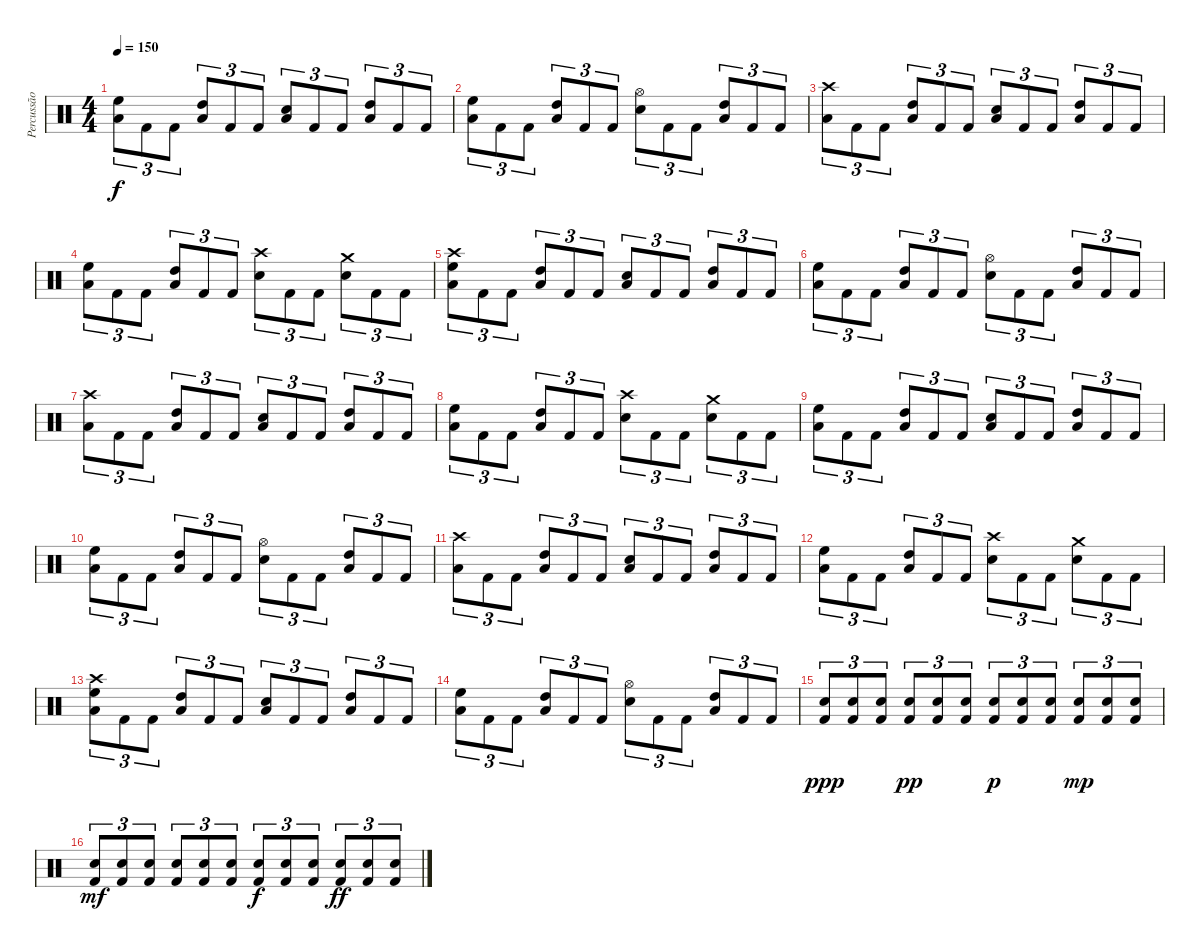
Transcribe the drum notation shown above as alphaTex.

\track ("Percussão" "Percussão") {instrument percussion}
\staff {score}
\articulation defaults
\ts (4 4)
\tempo 150
\clef neutral
\ks c
("Low Floor Tom (hit)" "High Floor Tom (hit)").8{tu (3 2) dy f} "Kick (hit) 2".8{tu (3 2)} "Kick (hit) 2".8{tu (3 2)} ("Low Floor Tom (hit)" "High Tom (hit)").8{tu (3 2)} "Kick (hit) 2".8{tu (3 2)} "Kick (hit) 2".8{tu (3 2)} ("Snare (hit) 2" "Low Floor Tom (hit)").8{tu (3 2)} "Kick (hit) 2".8{tu (3 2)} "Kick (hit) 2".8{tu (3 2)} ("Low Floor Tom (hit)" "High Tom (hit)").8{tu (3 2)} "Kick (hit) 2".8{tu (3 2)} "Kick (hit) 2".8{tu (3 2)} |
("Low Floor Tom (hit)" "High Floor Tom (hit)").8{tu (3 2)} "Kick (hit) 2".8{tu (3 2)} "Kick (hit) 2".8{tu (3 2)} ("Low Floor Tom (hit)" "High Tom (hit)").8{tu (3 2)} "Kick (hit) 2".8{tu (3 2)} "Kick (hit) 2".8{tu (3 2)} ("Hi-Hat (open)" "Snare (hit) 2").8{tu (3 2)} "Kick (hit) 2".8{tu (3 2)} "Kick (hit) 2".8{tu (3 2)} ("Low Floor Tom (hit)" "High Tom (hit)").8{tu (3 2)} "Kick (hit) 2".8{tu (3 2)} "Kick (hit) 2".8{tu (3 2)} |
("Crash high (hit)" "Low Floor Tom (hit)").8{tu (3 2)} "Kick (hit) 2".8{tu (3 2)} "Kick (hit) 2".8{tu (3 2)} ("Low Floor Tom (hit)" "High Tom (hit)").8{tu (3 2)} "Kick (hit) 2".8{tu (3 2)} "Kick (hit) 2".8{tu (3 2)} ("Snare (hit) 2" "Low Floor Tom (hit)").8{tu (3 2)} "Kick (hit) 2".8{tu (3 2)} "Kick (hit) 2".8{tu (3 2)} ("Low Floor Tom (hit)" "High Tom (hit)").8{tu (3 2)} "Kick (hit) 2".8{tu (3 2)} "Kick (hit) 2".8{tu (3 2)} |
("Low Floor Tom (hit)" "High Floor Tom (hit)").8{tu (3 2)} "Kick (hit) 2".8{tu (3 2)} "Kick (hit) 2".8{tu (3 2)} ("Low Floor Tom (hit)" "High Tom (hit)").8{tu (3 2)} "Kick (hit) 2".8{tu (3 2)} "Kick (hit) 2".8{tu (3 2)} ("Crash high (hit)" "Snare (hit) 2").8{tu (3 2)} "Kick (hit) 2".8{tu (3 2)} "Kick (hit) 2".8{tu (3 2)} ("Crash medium (hit)" "Snare (hit) 2").8{tu (3 2)} "Kick (hit) 2".8{tu (3 2)} "Kick (hit) 2".8{tu (3 2)} |
("Crash high (hit)" "Low Floor Tom (hit)" "High Floor Tom (hit)").8{tu (3 2)} "Kick (hit) 2".8{tu (3 2)} "Kick (hit) 2".8{tu (3 2)} ("Low Floor Tom (hit)" "High Tom (hit)").8{tu (3 2)} "Kick (hit) 2".8{tu (3 2)} "Kick (hit) 2".8{tu (3 2)} ("Snare (hit) 2" "Low Floor Tom (hit)").8{tu (3 2)} "Kick (hit) 2".8{tu (3 2)} "Kick (hit) 2".8{tu (3 2)} ("Low Floor Tom (hit)" "High Tom (hit)").8{tu (3 2)} "Kick (hit) 2".8{tu (3 2)} "Kick (hit) 2".8{tu (3 2)} |
("Low Floor Tom (hit)" "High Floor Tom (hit)").8{tu (3 2)} "Kick (hit) 2".8{tu (3 2)} "Kick (hit) 2".8{tu (3 2)} ("Low Floor Tom (hit)" "High Tom (hit)").8{tu (3 2)} "Kick (hit) 2".8{tu (3 2)} "Kick (hit) 2".8{tu (3 2)} ("Hi-Hat (open)" "Snare (hit) 2").8{tu (3 2)} "Kick (hit) 2".8{tu (3 2)} "Kick (hit) 2".8{tu (3 2)} ("Low Floor Tom (hit)" "High Tom (hit)").8{tu (3 2)} "Kick (hit) 2".8{tu (3 2)} "Kick (hit) 2".8{tu (3 2)} |
("Crash high (hit)" "Low Floor Tom (hit)").8{tu (3 2)} "Kick (hit) 2".8{tu (3 2)} "Kick (hit) 2".8{tu (3 2)} ("Low Floor Tom (hit)" "High Tom (hit)").8{tu (3 2)} "Kick (hit) 2".8{tu (3 2)} "Kick (hit) 2".8{tu (3 2)} ("Snare (hit) 2" "Low Floor Tom (hit)").8{tu (3 2)} "Kick (hit) 2".8{tu (3 2)} "Kick (hit) 2".8{tu (3 2)} ("Low Floor Tom (hit)" "High Tom (hit)").8{tu (3 2)} "Kick (hit) 2".8{tu (3 2)} "Kick (hit) 2".8{tu (3 2)} |
("Low Floor Tom (hit)" "High Floor Tom (hit)").8{tu (3 2)} "Kick (hit) 2".8{tu (3 2)} "Kick (hit) 2".8{tu (3 2)} ("Low Floor Tom (hit)" "High Tom (hit)").8{tu (3 2)} "Kick (hit) 2".8{tu (3 2)} "Kick (hit) 2".8{tu (3 2)} ("Crash high (hit)" "Snare (hit) 2").8{tu (3 2)} "Kick (hit) 2".8{tu (3 2)} "Kick (hit) 2".8{tu (3 2)} ("Crash medium (hit)" "Snare (hit) 2").8{tu (3 2)} "Kick (hit) 2".8{tu (3 2)} "Kick (hit) 2".8{tu (3 2)} |
("Low Floor Tom (hit)" "High Floor Tom (hit)").8{tu (3 2)} "Kick (hit) 2".8{tu (3 2)} "Kick (hit) 2".8{tu (3 2)} ("Low Floor Tom (hit)" "High Tom (hit)").8{tu (3 2)} "Kick (hit) 2".8{tu (3 2)} "Kick (hit) 2".8{tu (3 2)} ("Snare (hit) 2" "Low Floor Tom (hit)").8{tu (3 2)} "Kick (hit) 2".8{tu (3 2)} "Kick (hit) 2".8{tu (3 2)} ("Low Floor Tom (hit)" "High Tom (hit)").8{tu (3 2)} "Kick (hit) 2".8{tu (3 2)} "Kick (hit) 2".8{tu (3 2)} |
("Low Floor Tom (hit)" "High Floor Tom (hit)").8{tu (3 2)} "Kick (hit) 2".8{tu (3 2)} "Kick (hit) 2".8{tu (3 2)} ("Low Floor Tom (hit)" "High Tom (hit)").8{tu (3 2)} "Kick (hit) 2".8{tu (3 2)} "Kick (hit) 2".8{tu (3 2)} ("Hi-Hat (open)" "Snare (hit) 2").8{tu (3 2)} "Kick (hit) 2".8{tu (3 2)} "Kick (hit) 2".8{tu (3 2)} ("Low Floor Tom (hit)" "High Tom (hit)").8{tu (3 2)} "Kick (hit) 2".8{tu (3 2)} "Kick (hit) 2".8{tu (3 2)} |
("Crash high (hit)" "Low Floor Tom (hit)").8{tu (3 2)} "Kick (hit) 2".8{tu (3 2)} "Kick (hit) 2".8{tu (3 2)} ("Low Floor Tom (hit)" "High Tom (hit)").8{tu (3 2)} "Kick (hit) 2".8{tu (3 2)} "Kick (hit) 2".8{tu (3 2)} ("Snare (hit) 2" "Low Floor Tom (hit)").8{tu (3 2)} "Kick (hit) 2".8{tu (3 2)} "Kick (hit) 2".8{tu (3 2)} ("Low Floor Tom (hit)" "High Tom (hit)").8{tu (3 2)} "Kick (hit) 2".8{tu (3 2)} "Kick (hit) 2".8{tu (3 2)} |
("Low Floor Tom (hit)" "High Floor Tom (hit)").8{tu (3 2)} "Kick (hit) 2".8{tu (3 2)} "Kick (hit) 2".8{tu (3 2)} ("Low Floor Tom (hit)" "High Tom (hit)").8{tu (3 2)} "Kick (hit) 2".8{tu (3 2)} "Kick (hit) 2".8{tu (3 2)} ("Crash high (hit)" "Snare (hit) 2").8{tu (3 2)} "Kick (hit) 2".8{tu (3 2)} "Kick (hit) 2".8{tu (3 2)} ("Crash medium (hit)" "Snare (hit) 2").8{tu (3 2)} "Kick (hit) 2".8{tu (3 2)} "Kick (hit) 2".8{tu (3 2)} |
("Crash high (hit)" "Low Floor Tom (hit)" "High Floor Tom (hit)").8{tu (3 2)} "Kick (hit) 2".8{tu (3 2)} "Kick (hit) 2".8{tu (3 2)} ("Low Floor Tom (hit)" "High Tom (hit)").8{tu (3 2)} "Kick (hit) 2".8{tu (3 2)} "Kick (hit) 2".8{tu (3 2)} ("Snare (hit) 2" "Low Floor Tom (hit)").8{tu (3 2)} "Kick (hit) 2".8{tu (3 2)} "Kick (hit) 2".8{tu (3 2)} ("Low Floor Tom (hit)" "High Tom (hit)").8{tu (3 2)} "Kick (hit) 2".8{tu (3 2)} "Kick (hit) 2".8{tu (3 2)} |
("Low Floor Tom (hit)" "High Floor Tom (hit)").8{tu (3 2)} "Kick (hit) 2".8{tu (3 2)} "Kick (hit) 2".8{tu (3 2)} ("Low Floor Tom (hit)" "High Tom (hit)").8{tu (3 2)} "Kick (hit) 2".8{tu (3 2)} "Kick (hit) 2".8{tu (3 2)} ("Hi-Hat (open)" "Snare (hit) 2").8{tu (3 2)} "Kick (hit) 2".8{tu (3 2)} "Kick (hit) 2".8{tu (3 2)} ("Low Floor Tom (hit)" "High Tom (hit)").8{tu (3 2)} "Kick (hit) 2".8{tu (3 2)} "Kick (hit) 2".8{tu (3 2)} |
("Kick (hit) 2" "Snare (hit) 2").8{tu (3 2) dy ppp} ("Kick (hit) 2" "Snare (hit) 2").8{tu (3 2)} ("Kick (hit) 2" "Snare (hit) 2").8{tu (3 2)} ("Kick (hit) 2" "Snare (hit) 2").8{tu (3 2) dy pp} ("Kick (hit) 2" "Snare (hit) 2").8{tu (3 2)} ("Kick (hit) 2" "Snare (hit) 2").8{tu (3 2)} ("Kick (hit) 2" "Snare (hit) 2").8{tu (3 2) dy p} ("Kick (hit) 2" "Snare (hit) 2").8{tu (3 2)} ("Kick (hit) 2" "Snare (hit) 2").8{tu (3 2)} ("Kick (hit) 2" "Snare (hit) 2").8{tu (3 2) dy mp} ("Kick (hit) 2" "Snare (hit) 2").8{tu (3 2)} ("Kick (hit) 2" "Snare (hit) 2").8{tu (3 2)} |
("Kick (hit) 2" "Snare (hit) 2").8{tu (3 2) dy mf} ("Kick (hit) 2" "Snare (hit) 2").8{tu (3 2)} ("Kick (hit) 2" "Snare (hit) 2").8{tu (3 2)} ("Kick (hit) 2" "Snare (hit) 2").8{tu (3 2)} ("Kick (hit) 2" "Snare (hit) 2").8{tu (3 2)} ("Kick (hit) 2" "Snare (hit) 2").8{tu (3 2)} ("Kick (hit) 2" "Snare (hit) 2").8{tu (3 2) dy f} ("Kick (hit) 2" "Snare (hit) 2").8{tu (3 2)} ("Kick (hit) 2" "Snare (hit) 2").8{tu (3 2)} ("Kick (hit) 2" "Snare (hit) 2").8{tu (3 2) dy ff} ("Kick (hit) 2" "Snare (hit) 2").8{tu (3 2)} ("Kick (hit) 2" "Snare (hit) 2").8{tu (3 2)}
